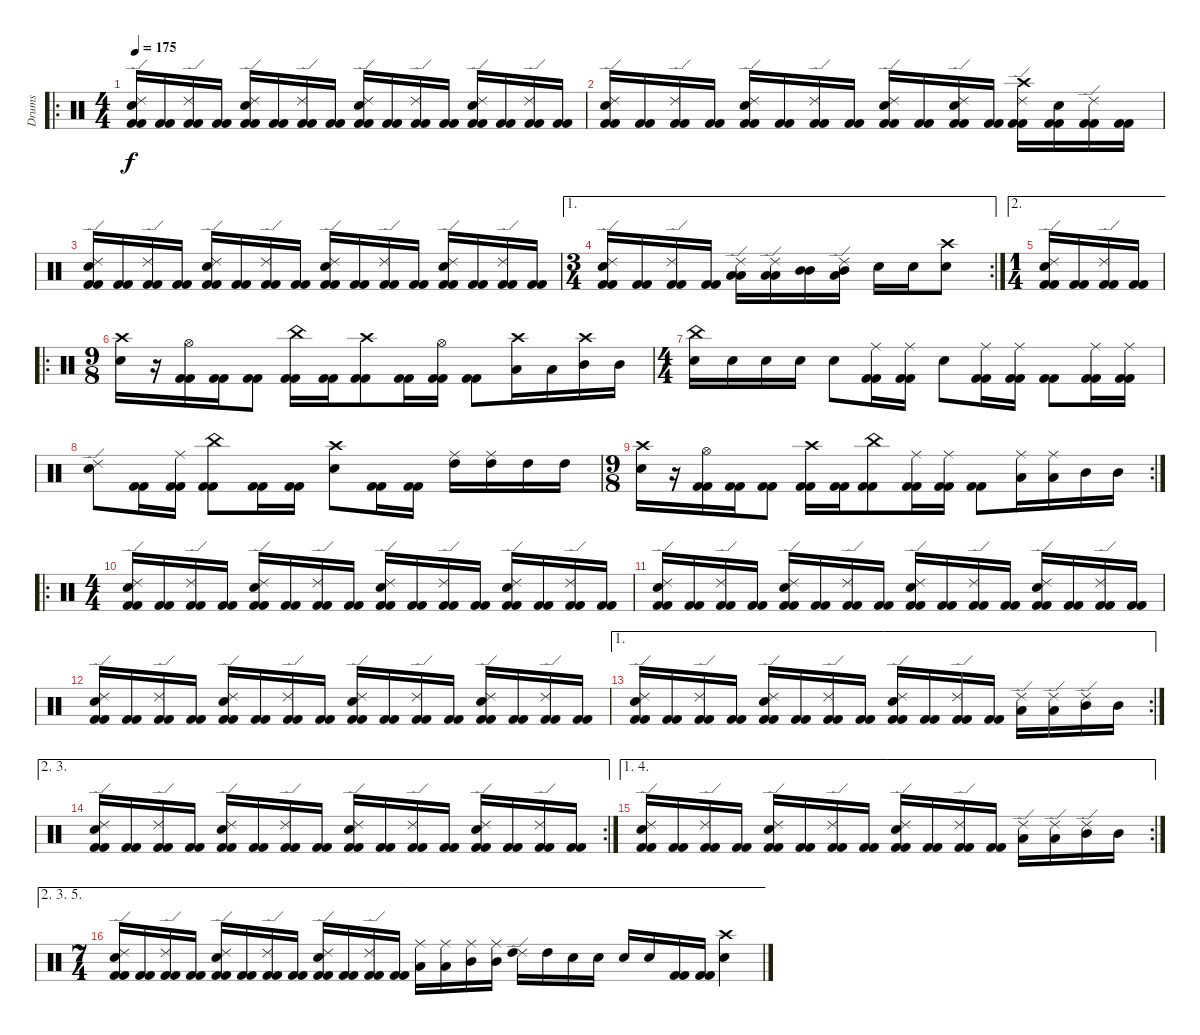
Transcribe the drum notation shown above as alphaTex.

\track ("Drums " "Drums ") {instrument percussion}
\staff {score}
\articulation defaults
\ro
\ts (4 4)
\tempo 175
\clef neutral
\ks c
("Ride (edge) 2" "Electric Snare (hit)" "Kick (hit) 2" "Kick (hit) 2").16{dy f} ("Kick (hit) 2" "Kick (hit) 2").16 ("Ride (edge) 2" "Kick (hit) 2" "Kick (hit) 2").16 ("Kick (hit) 2" "Kick (hit) 2").16 ("Ride (edge) 2" "Electric Snare (hit)" "Kick (hit) 2" "Kick (hit) 2").16 ("Kick (hit) 2" "Kick (hit) 2").16 ("Ride (edge) 2" "Kick (hit) 2" "Kick (hit) 2").16 ("Kick (hit) 2" "Kick (hit) 2").16 ("Ride (edge) 2" "Electric Snare (hit)" "Kick (hit) 2" "Kick (hit) 2").16 ("Kick (hit) 2" "Kick (hit) 2").16 ("Ride (edge) 2" "Kick (hit) 2" "Kick (hit) 2").16 ("Kick (hit) 2" "Kick (hit) 2").16 ("Ride (edge) 2" "Electric Snare (hit)" "Kick (hit) 2" "Kick (hit) 2").16 ("Kick (hit) 2" "Kick (hit) 2").16 ("Ride (edge) 2" "Kick (hit) 2" "Kick (hit) 2").16 ("Kick (hit) 2" "Kick (hit) 2").16 |
("Ride (edge) 2" "Electric Snare (hit)" "Kick (hit) 2" "Kick (hit) 2").16 ("Kick (hit) 2" "Kick (hit) 2").16 ("Ride (edge) 2" "Kick (hit) 2" "Kick (hit) 2").16 ("Kick (hit) 2" "Kick (hit) 2").16 ("Ride (edge) 2" "Electric Snare (hit)" "Kick (hit) 2" "Kick (hit) 2").16 ("Kick (hit) 2" "Kick (hit) 2").16 ("Ride (edge) 2" "Kick (hit) 2" "Kick (hit) 2").16 ("Kick (hit) 2" "Kick (hit) 2").16 ("Ride (edge) 2" "Electric Snare (hit)" "Kick (hit) 2" "Kick (hit) 2").16 ("Kick (hit) 2" "Kick (hit) 2").16 ("Ride (edge) 2" "Electric Snare (hit)" "Kick (hit) 2" "Kick (hit) 2").16 ("Kick (hit) 2" "Kick (hit) 2").16 ("Ride (edge) 2" "Crash high (hit)" "Kick (hit) 2" "Kick (hit) 2").16 ("Electric Snare (hit)" "Kick (hit) 2" "Kick (hit) 2").16 ("Ride (edge) 2" "Kick (hit) 2" "Kick (hit) 2").16 ("Kick (hit) 2" "Kick (hit) 2").16 |
("Ride (edge) 2" "Electric Snare (hit)" "Kick (hit) 2" "Kick (hit) 2").16 ("Kick (hit) 2" "Kick (hit) 2").16 ("Ride (edge) 2" "Kick (hit) 2" "Kick (hit) 2").16 ("Kick (hit) 2" "Kick (hit) 2").16 ("Ride (edge) 2" "Electric Snare (hit)" "Kick (hit) 2" "Kick (hit) 2").16 ("Kick (hit) 2" "Kick (hit) 2").16 ("Ride (edge) 2" "Kick (hit) 2" "Kick (hit) 2").16 ("Kick (hit) 2" "Kick (hit) 2").16 ("Ride (edge) 2" "Electric Snare (hit)" "Kick (hit) 2" "Kick (hit) 2").16 ("Kick (hit) 2" "Kick (hit) 2").16 ("Ride (edge) 2" "Kick (hit) 2" "Kick (hit) 2").16 ("Kick (hit) 2" "Kick (hit) 2").16 ("Ride (edge) 2" "Electric Snare (hit)" "Kick (hit) 2" "Kick (hit) 2").16 ("Kick (hit) 2" "Kick (hit) 2").16 ("Ride (edge) 2" "Kick (hit) 2" "Kick (hit) 2").16 ("Kick (hit) 2" "Kick (hit) 2").16 |
\ae 1
\rc 2
\ts (3 4)
("Ride (edge) 2" "Electric Snare (hit)" "Kick (hit) 2" "Kick (hit) 2").16 ("Kick (hit) 2" "Kick (hit) 2").16 ("Ride (edge) 2" "Kick (hit) 2" "Kick (hit) 2").16 ("Kick (hit) 2" "Kick (hit) 2").16 ("Ride (edge) 2" "Low Tom (hit)" "Low Tom (hit)").16 ("Ride (edge) 2" "Low Tom (hit)" "Low Tom (hit)").16 ("Mid Tom (hit)" "Mid Tom (hit)").16 ("Ride (edge) 2" "Mid Tom (hit)" "Low Tom (hit)").16 "Electric Snare (hit)".16 "Electric Snare (hit)".16 ("Crash high (hit)" "Electric Snare (hit)").8 |
\ae 2
\ts (1 4)
("Ride (edge) 2" "Electric Snare (hit)" "Kick (hit) 2" "Kick (hit) 2").16 ("Kick (hit) 2" "Kick (hit) 2").16 ("Ride (edge) 2" "Kick (hit) 2" "Kick (hit) 2").16 ("Kick (hit) 2" "Kick (hit) 2").16 |
\ro
\ts (9 8)
("Crash high (hit)" "Electric Snare (hit)").16 r.16 ("Hi-Hat (open)" "Kick (hit) 2" "Kick (hit) 2").16 ("Kick (hit) 2" "Kick (hit) 2").16 ("Kick (hit) 2" "Kick (hit) 2").8 ("China (hit)" "Kick (hit) 2" "Kick (hit) 2").16 ("Kick (hit) 2" "Kick (hit) 2").16 ("Crash high (hit)" "Kick (hit) 2" "Kick (hit) 2").8 ("Kick (hit) 2" "Kick (hit) 2").16 ("Hi-Hat (open)" "Kick (hit) 2" "Kick (hit) 2").16 ("Kick (hit) 2" "Kick (hit) 2").8 ("Crash high (hit)" "Low Tom (hit)").16 "Low Tom (hit)".16 ("Crash high (hit)" "Mid Tom (hit)").16 "Mid Tom (hit)".16 |
\ts (4 4)
("China (hit)" "Electric Snare (hit)").16 "Electric Snare (hit)".16 "Electric Snare (hit)".16 "Electric Snare (hit)".16 "Electric Snare (hit)".8 ("Ride (middle)" "Kick (hit) 2" "Kick (hit) 2").16 ("Ride (middle)" "Kick (hit) 2" "Kick (hit) 2").16 "Electric Snare (hit)".8 ("Ride (middle)" "Kick (hit) 2" "Kick (hit) 2").16 ("Ride (middle)" "Kick (hit) 2" "Kick (hit) 2").16 ("Kick (hit) 2" "Kick (hit) 2").8 ("Ride (middle)" "Kick (hit) 2" "Kick (hit) 2").16 ("Ride (middle)" "Kick (hit) 2" "Kick (hit) 2").16 |
("Ride (edge) 2" "Electric Snare (hit)").8 ("Kick (hit) 2" "Kick (hit) 2").16 ("Ride (middle)" "Kick (hit) 2" "Kick (hit) 2").16 ("China (hit)" "Kick (hit) 2" "Kick (hit) 2").8 ("Kick (hit) 2" "Kick (hit) 2").16 ("Kick (hit) 2" "Kick (hit) 2").16 ("Crash high (hit)" "Electric Snare (hit)").8 ("Kick (hit) 2" "Kick (hit) 2").16 ("Kick (hit) 2" "Kick (hit) 2").16 ("Ride (middle)" "High Tom (hit)").16 ("Ride (middle)" "High Tom (hit)").16 "High Tom (hit)".16 "High Tom (hit)".16 |
\rc 2
\ts (9 8)
("Crash high (hit)" "Electric Snare (hit)").16 r.16 ("Hi-Hat (open)" "Kick (hit) 2" "Kick (hit) 2").16 ("Kick (hit) 2" "Kick (hit) 2").16 ("Kick (hit) 2" "Kick (hit) 2").8 ("Crash high (hit)" "Kick (hit) 2" "Kick (hit) 2").16 ("Kick (hit) 2" "Kick (hit) 2").16 ("China (hit)" "Kick (hit) 2" "Kick (hit) 2").8 ("Ride (middle)" "Kick (hit) 2" "Kick (hit) 2").16 ("Ride (middle)" "Kick (hit) 2" "Kick (hit) 2").16 ("Kick (hit) 2" "Kick (hit) 2").8 ("Ride (middle)" "Low Tom (hit)").16 ("Ride (middle)" "Low Tom (hit)").16 "Mid Tom (hit)".16 "Mid Tom (hit)".16 |
\ro
\ts (4 4)
("Ride (edge) 2" "Electric Snare (hit)" "Kick (hit) 2" "Kick (hit) 2").16 ("Kick (hit) 2" "Kick (hit) 2").16 ("Ride (edge) 2" "Kick (hit) 2" "Kick (hit) 2").16 ("Kick (hit) 2" "Kick (hit) 2").16 ("Ride (edge) 2" "Electric Snare (hit)" "Kick (hit) 2" "Kick (hit) 2").16 ("Kick (hit) 2" "Kick (hit) 2").16 ("Ride (edge) 2" "Kick (hit) 2" "Kick (hit) 2").16 ("Kick (hit) 2" "Kick (hit) 2").16 ("Ride (edge) 2" "Electric Snare (hit)" "Kick (hit) 2" "Kick (hit) 2").16 ("Kick (hit) 2" "Kick (hit) 2").16 ("Ride (edge) 2" "Kick (hit) 2" "Kick (hit) 2").16 ("Kick (hit) 2" "Kick (hit) 2").16 ("Ride (edge) 2" "Electric Snare (hit)" "Kick (hit) 2" "Kick (hit) 2").16 ("Kick (hit) 2" "Kick (hit) 2").16 ("Ride (edge) 2" "Kick (hit) 2" "Kick (hit) 2").16 ("Kick (hit) 2" "Kick (hit) 2").16 |
("Ride (edge) 2" "Electric Snare (hit)" "Kick (hit) 2" "Kick (hit) 2").16 ("Kick (hit) 2" "Kick (hit) 2").16 ("Ride (edge) 2" "Kick (hit) 2" "Kick (hit) 2").16 ("Kick (hit) 2" "Kick (hit) 2").16 ("Ride (edge) 2" "Electric Snare (hit)" "Kick (hit) 2" "Kick (hit) 2").16 ("Kick (hit) 2" "Kick (hit) 2").16 ("Ride (edge) 2" "Kick (hit) 2" "Kick (hit) 2").16 ("Kick (hit) 2" "Kick (hit) 2").16 ("Ride (edge) 2" "Electric Snare (hit)" "Kick (hit) 2" "Kick (hit) 2").16 ("Kick (hit) 2" "Kick (hit) 2").16 ("Ride (edge) 2" "Kick (hit) 2" "Kick (hit) 2").16 ("Kick (hit) 2" "Kick (hit) 2").16 ("Ride (edge) 2" "Electric Snare (hit)" "Kick (hit) 2" "Kick (hit) 2").16 ("Kick (hit) 2" "Kick (hit) 2").16 ("Ride (edge) 2" "Kick (hit) 2" "Kick (hit) 2").16 ("Kick (hit) 2" "Kick (hit) 2").16 |
("Ride (edge) 2" "Electric Snare (hit)" "Kick (hit) 2" "Kick (hit) 2").16 ("Kick (hit) 2" "Kick (hit) 2").16 ("Ride (edge) 2" "Kick (hit) 2" "Kick (hit) 2").16 ("Kick (hit) 2" "Kick (hit) 2").16 ("Ride (edge) 2" "Electric Snare (hit)" "Kick (hit) 2" "Kick (hit) 2").16 ("Kick (hit) 2" "Kick (hit) 2").16 ("Ride (edge) 2" "Kick (hit) 2" "Kick (hit) 2").16 ("Kick (hit) 2" "Kick (hit) 2").16 ("Ride (edge) 2" "Electric Snare (hit)" "Kick (hit) 2" "Kick (hit) 2").16 ("Kick (hit) 2" "Kick (hit) 2").16 ("Ride (edge) 2" "Kick (hit) 2" "Kick (hit) 2").16 ("Kick (hit) 2" "Kick (hit) 2").16 ("Ride (edge) 2" "Electric Snare (hit)" "Kick (hit) 2" "Kick (hit) 2").16 ("Kick (hit) 2" "Kick (hit) 2").16 ("Ride (edge) 2" "Kick (hit) 2" "Kick (hit) 2").16 ("Kick (hit) 2" "Kick (hit) 2").16 |
\ae 1
\rc 2
("Ride (edge) 2" "Electric Snare (hit)" "Kick (hit) 2" "Kick (hit) 2").16 ("Kick (hit) 2" "Kick (hit) 2").16 ("Ride (edge) 2" "Kick (hit) 2" "Kick (hit) 2").16 ("Kick (hit) 2" "Kick (hit) 2").16 ("Ride (edge) 2" "Electric Snare (hit)" "Kick (hit) 2" "Kick (hit) 2").16 ("Kick (hit) 2" "Kick (hit) 2").16 ("Ride (edge) 2" "Kick (hit) 2" "Kick (hit) 2").16 ("Kick (hit) 2" "Kick (hit) 2").16 ("Ride (edge) 2" "Electric Snare (hit)" "Kick (hit) 2" "Kick (hit) 2").16 ("Kick (hit) 2" "Kick (hit) 2").16 ("Ride (edge) 2" "Kick (hit) 2" "Kick (hit) 2").16 ("Kick (hit) 2" "Kick (hit) 2").16 ("Ride (edge) 2" "Low Tom (hit)").16 ("Ride (edge) 2" "Low Tom (hit)").16 ("Ride (edge) 2" "Mid Tom (hit)").16 "Mid Tom (hit)".16 |
\ae (2 3)
\rc 2
("Ride (edge) 2" "Electric Snare (hit)" "Kick (hit) 2" "Kick (hit) 2").16 ("Kick (hit) 2" "Kick (hit) 2").16 ("Ride (edge) 2" "Kick (hit) 2" "Kick (hit) 2").16 ("Kick (hit) 2" "Kick (hit) 2").16 ("Ride (edge) 2" "Electric Snare (hit)" "Kick (hit) 2" "Kick (hit) 2").16 ("Kick (hit) 2" "Kick (hit) 2").16 ("Ride (edge) 2" "Kick (hit) 2" "Kick (hit) 2").16 ("Kick (hit) 2" "Kick (hit) 2").16 ("Ride (edge) 2" "Electric Snare (hit)" "Kick (hit) 2" "Kick (hit) 2").16 ("Kick (hit) 2" "Kick (hit) 2").16 ("Ride (edge) 2" "Kick (hit) 2" "Kick (hit) 2").16 ("Kick (hit) 2" "Kick (hit) 2").16 ("Ride (edge) 2" "Electric Snare (hit)" "Kick (hit) 2" "Kick (hit) 2").16 ("Kick (hit) 2" "Kick (hit) 2").16 ("Ride (edge) 2" "Kick (hit) 2" "Kick (hit) 2").16 ("Kick (hit) 2" "Kick (hit) 2").16 |
\ae (1 4)
\rc 2
("Ride (edge) 2" "Electric Snare (hit)" "Kick (hit) 2" "Kick (hit) 2").16 ("Kick (hit) 2" "Kick (hit) 2").16 ("Ride (edge) 2" "Kick (hit) 2" "Kick (hit) 2").16 ("Kick (hit) 2" "Kick (hit) 2").16 ("Ride (edge) 2" "Electric Snare (hit)" "Kick (hit) 2" "Kick (hit) 2").16 ("Kick (hit) 2" "Kick (hit) 2").16 ("Ride (edge) 2" "Kick (hit) 2" "Kick (hit) 2").16 ("Kick (hit) 2" "Kick (hit) 2").16 ("Ride (edge) 2" "Electric Snare (hit)" "Kick (hit) 2" "Kick (hit) 2").16 ("Kick (hit) 2" "Kick (hit) 2").16 ("Ride (edge) 2" "Kick (hit) 2" "Kick (hit) 2").16 ("Kick (hit) 2" "Kick (hit) 2").16 ("Ride (edge) 2" "Low Tom (hit)").16 ("Ride (edge) 2" "Low Tom (hit)").16 ("Ride (edge) 2" "Mid Tom (hit)").16 "Mid Tom (hit)".16 |
\ae (2 3 5)
\ts (7 4)
("Ride (edge) 2" "Electric Snare (hit)" "Kick (hit) 2" "Kick (hit) 2").16 ("Kick (hit) 2" "Kick (hit) 2").16 ("Ride (edge) 2" "Kick (hit) 2" "Kick (hit) 2").16 ("Kick (hit) 2" "Kick (hit) 2").16 ("Ride (edge) 2" "Electric Snare (hit)" "Kick (hit) 2" "Kick (hit) 2").16 ("Kick (hit) 2" "Kick (hit) 2").16 ("Ride (edge) 2" "Kick (hit) 2" "Kick (hit) 2").16 ("Kick (hit) 2" "Kick (hit) 2").16 ("Ride (edge) 2" "Electric Snare (hit)" "Kick (hit) 2" "Kick (hit) 2").16 ("Kick (hit) 2" "Kick (hit) 2").16 ("Ride (edge) 2" "Kick (hit) 2" "Kick (hit) 2").16 ("Kick (hit) 2" "Kick (hit) 2").16 ("Ride (middle)" "Low Tom (hit)").16 ("Ride (middle)" "Low Tom (hit)").16 ("Ride (middle)" "Mid Tom (hit)").16 ("Ride (middle)" "Mid Tom (hit)").16 ("Ride (edge) 2" "High Tom (hit)").16 "High Tom (hit)".16 "Electric Snare (hit)".16 "Electric Snare (hit)".16 "Electric Snare (hit)".16 "Electric Snare (hit)".16 ("Kick (hit) 2" "Kick (hit) 2").16 ("Kick (hit) 2" "Kick (hit) 2").16 ("Crash high (hit)" "Electric Snare (hit)").4
